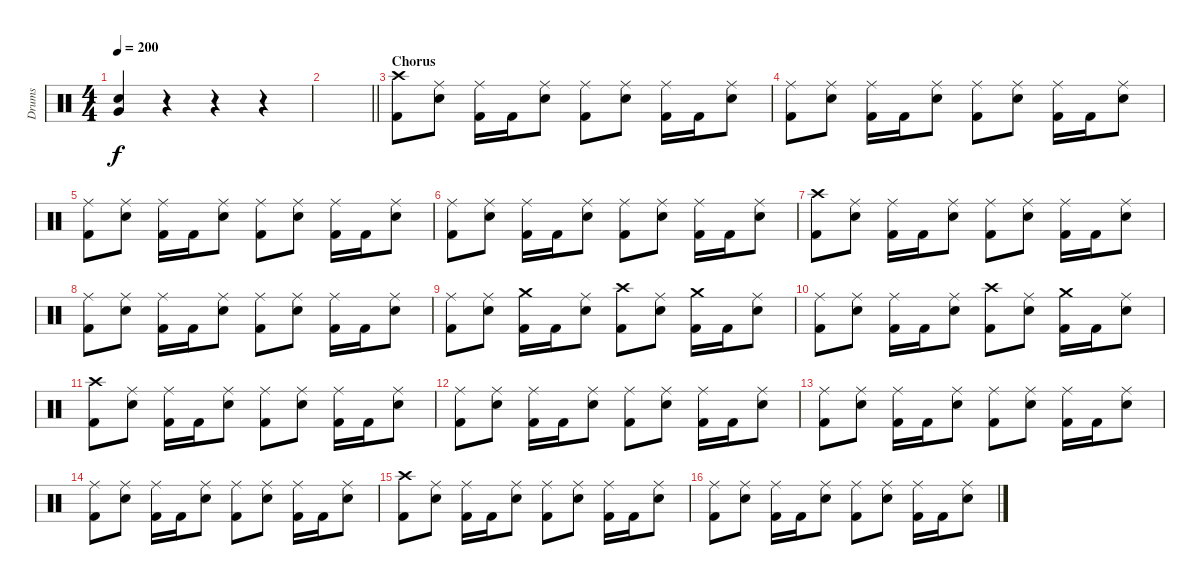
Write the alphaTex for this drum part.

\track ("Drums" "Drums") {instrument percussion}
\staff {score}
\articulation defaults
\ts (4 4)
\tempo 200
\clef neutral
\ks c
("Very Low Tom (hit)" "Electric Snare (hit)").4{dy f} r.4 r.4 r.4 |
\barLineRight lightlight
|
\section ("" "Chorus")
("Crash high (hit)" "Kick (hit) 2").8 ("Ride (middle)" "Electric Snare (hit)").8 ("Ride (middle)" "Kick (hit) 2").16 "Kick (hit) 2".16 ("Ride (middle)" "Electric Snare (hit)").8 ("Ride (middle)" "Kick (hit) 2").8 ("Ride (middle)" "Electric Snare (hit)").8 ("Ride (middle)" "Kick (hit) 2").16 "Kick (hit) 2".16 ("Ride (middle)" "Electric Snare (hit)").8 |
("Ride (middle)" "Kick (hit) 2").8 ("Ride (middle)" "Electric Snare (hit)").8 ("Ride (middle)" "Kick (hit) 2").16 "Kick (hit) 2".16 ("Ride (middle)" "Electric Snare (hit)").8 ("Ride (middle)" "Kick (hit) 2").8 ("Ride (middle)" "Electric Snare (hit)").8 ("Ride (middle)" "Kick (hit) 2").16 "Kick (hit) 2".16 ("Ride (middle)" "Electric Snare (hit)").8 |
("Ride (middle)" "Kick (hit) 2").8 ("Ride (middle)" "Electric Snare (hit)").8 ("Ride (middle)" "Kick (hit) 2").16 "Kick (hit) 2".16 ("Ride (middle)" "Electric Snare (hit)").8 ("Ride (middle)" "Kick (hit) 2").8 ("Ride (middle)" "Electric Snare (hit)").8 ("Ride (middle)" "Kick (hit) 2").16 "Kick (hit) 2".16 ("Ride (middle)" "Electric Snare (hit)").8 |
("Ride (middle)" "Kick (hit) 2").8 ("Ride (middle)" "Electric Snare (hit)").8 ("Ride (middle)" "Kick (hit) 2").16 "Kick (hit) 2".16 ("Ride (middle)" "Electric Snare (hit)").8 ("Ride (middle)" "Kick (hit) 2").8 ("Ride (middle)" "Electric Snare (hit)").8 ("Ride (middle)" "Kick (hit) 2").16 "Kick (hit) 2".16 ("Ride (middle)" "Electric Snare (hit)").8 |
("Crash high (hit)" "Kick (hit) 2").8 ("Ride (middle)" "Electric Snare (hit)").8 ("Ride (middle)" "Kick (hit) 2").16 "Kick (hit) 2".16 ("Ride (middle)" "Electric Snare (hit)").8 ("Ride (middle)" "Kick (hit) 2").8 ("Ride (middle)" "Electric Snare (hit)").8 ("Ride (middle)" "Kick (hit) 2").16 "Kick (hit) 2".16 ("Ride (middle)" "Electric Snare (hit)").8 |
("Ride (middle)" "Kick (hit) 2").8 ("Ride (middle)" "Electric Snare (hit)").8 ("Ride (middle)" "Kick (hit) 2").16 "Kick (hit) 2".16 ("Ride (middle)" "Electric Snare (hit)").8 ("Ride (middle)" "Kick (hit) 2").8 ("Ride (middle)" "Electric Snare (hit)").8 ("Ride (middle)" "Kick (hit) 2").16 "Kick (hit) 2".16 ("Ride (middle)" "Electric Snare (hit)").8 |
("Ride (middle)" "Kick (hit) 2").8 ("Ride (middle)" "Electric Snare (hit)").8 ("Crash medium (hit)" "Kick (hit) 2").16 "Kick (hit) 2".16 ("Ride (middle)" "Electric Snare (hit)").8 ("Crash high (hit)" "Kick (hit) 2").8 ("Ride (middle)" "Electric Snare (hit)").8 ("Crash medium (hit)" "Kick (hit) 2").16 "Kick (hit) 2".16 ("Ride (middle)" "Electric Snare (hit)").8 |
("Ride (middle)" "Kick (hit) 2").8 ("Ride (middle)" "Electric Snare (hit)").8 ("Ride (middle)" "Kick (hit) 2").16 "Kick (hit) 2".16 ("Ride (middle)" "Electric Snare (hit)").8 ("Crash high (hit)" "Kick (hit) 2").8 ("Ride (middle)" "Electric Snare (hit)").8 ("Crash medium (hit)" "Kick (hit) 2").16 "Kick (hit) 2".16 ("Ride (middle)" "Electric Snare (hit)").8 |
("Crash high (hit)" "Kick (hit) 2").8 ("Ride (middle)" "Electric Snare (hit)").8 ("Ride (middle)" "Kick (hit) 2").16 "Kick (hit) 2".16 ("Ride (middle)" "Electric Snare (hit)").8 ("Ride (middle)" "Kick (hit) 2").8 ("Ride (middle)" "Electric Snare (hit)").8 ("Ride (middle)" "Kick (hit) 2").16 "Kick (hit) 2".16 ("Ride (middle)" "Electric Snare (hit)").8 |
("Ride (middle)" "Kick (hit) 2").8 ("Ride (middle)" "Electric Snare (hit)").8 ("Ride (middle)" "Kick (hit) 2").16 "Kick (hit) 2".16 ("Ride (middle)" "Electric Snare (hit)").8 ("Ride (middle)" "Kick (hit) 2").8 ("Ride (middle)" "Electric Snare (hit)").8 ("Ride (middle)" "Kick (hit) 2").16 "Kick (hit) 2".16 ("Ride (middle)" "Electric Snare (hit)").8 |
("Ride (middle)" "Kick (hit) 2").8 ("Ride (middle)" "Electric Snare (hit)").8 ("Ride (middle)" "Kick (hit) 2").16 "Kick (hit) 2".16 ("Ride (middle)" "Electric Snare (hit)").8 ("Ride (middle)" "Kick (hit) 2").8 ("Ride (middle)" "Electric Snare (hit)").8 ("Ride (middle)" "Kick (hit) 2").16 "Kick (hit) 2".16 ("Ride (middle)" "Electric Snare (hit)").8 |
("Ride (middle)" "Kick (hit) 2").8 ("Ride (middle)" "Electric Snare (hit)").8 ("Ride (middle)" "Kick (hit) 2").16 "Kick (hit) 2".16 ("Ride (middle)" "Electric Snare (hit)").8 ("Ride (middle)" "Kick (hit) 2").8 ("Ride (middle)" "Electric Snare (hit)").8 ("Ride (middle)" "Kick (hit) 2").16 "Kick (hit) 2".16 ("Ride (middle)" "Electric Snare (hit)").8 |
("Crash high (hit)" "Kick (hit) 2").8 ("Ride (middle)" "Electric Snare (hit)").8 ("Ride (middle)" "Kick (hit) 2").16 "Kick (hit) 2".16 ("Ride (middle)" "Electric Snare (hit)").8 ("Ride (middle)" "Kick (hit) 2").8 ("Ride (middle)" "Electric Snare (hit)").8 ("Ride (middle)" "Kick (hit) 2").16 "Kick (hit) 2".16 ("Ride (middle)" "Electric Snare (hit)").8 |
("Ride (middle)" "Kick (hit) 2").8 ("Ride (middle)" "Electric Snare (hit)").8 ("Ride (middle)" "Kick (hit) 2").16 "Kick (hit) 2".16 ("Ride (middle)" "Electric Snare (hit)").8 ("Ride (middle)" "Kick (hit) 2").8 ("Ride (middle)" "Electric Snare (hit)").8 ("Ride (middle)" "Kick (hit) 2").16 "Kick (hit) 2".16 ("Ride (middle)" "Electric Snare (hit)").8
